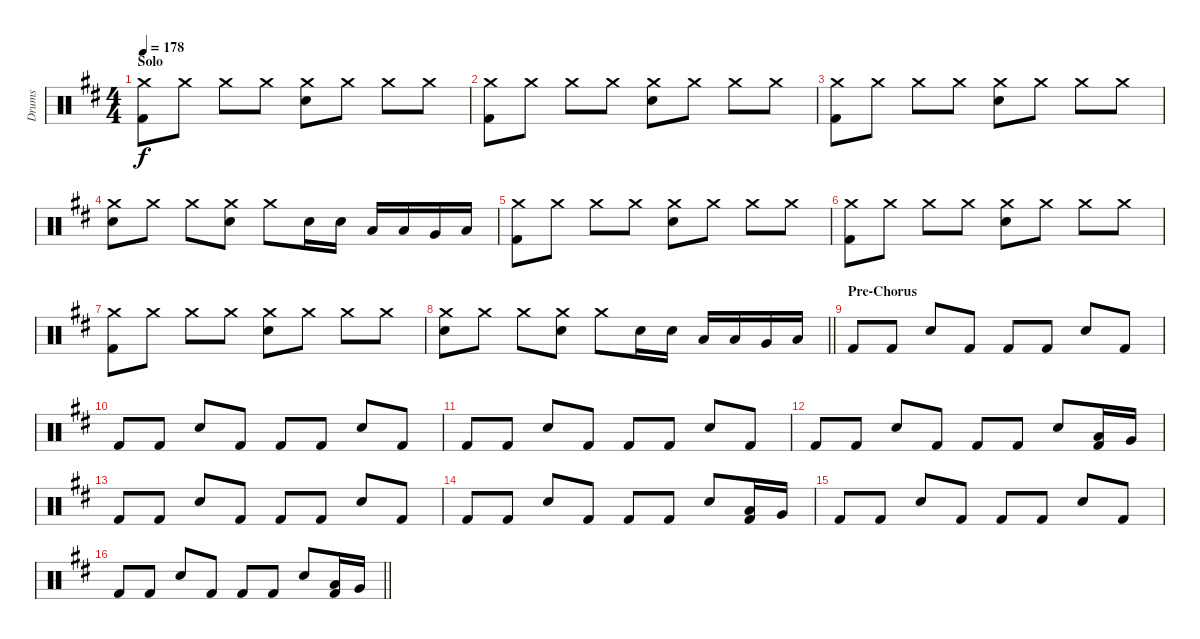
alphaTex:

\track ("Drums" "Drums") {instrument percussion}
\staff {score}
\articulation defaults
\ts (4 4)
\section ("" "Solo")
\tempo 178
\clef neutral
\ks bminor
("Crash medium (hit)" "Kick (hit) 2").8{dy f} "Crash medium (hit)".8 "Crash medium (hit)".8 "Crash medium (hit)".8 ("Crash medium (hit)" "Snare (hit) 2").8 "Crash medium (hit)".8 "Crash medium (hit)".8 "Crash medium (hit)".8 |
("Crash medium (hit)" "Kick (hit) 2").8 "Crash medium (hit)".8 "Crash medium (hit)".8 "Crash medium (hit)".8 ("Crash medium (hit)" "Snare (hit) 2").8 "Crash medium (hit)".8 "Crash medium (hit)".8 "Crash medium (hit)".8 |
("Crash medium (hit)" "Kick (hit) 2").8 "Crash medium (hit)".8 "Crash medium (hit)".8 "Crash medium (hit)".8 ("Crash medium (hit)" "Snare (hit) 2").8 "Crash medium (hit)".8 "Crash medium (hit)".8 "Crash medium (hit)".8 |
("Crash medium (hit)" "Snare (hit) 2").8 "Crash medium (hit)".8 "Crash medium (hit)".8 ("Crash medium (hit)" "Snare (hit) 2").8 "Crash medium (hit)".8 "Snare (hit) 2".16 "Snare (hit) 2".16 "Low Tom (hit)".16 "Low Tom (hit)".16 "Very Low Tom (hit)".16 "Low Floor Tom (hit)".16 |
("Crash medium (hit)" "Kick (hit) 2").8 "Crash medium (hit)".8 "Crash medium (hit)".8 "Crash medium (hit)".8 ("Crash medium (hit)" "Snare (hit) 2").8 "Crash medium (hit)".8 "Crash medium (hit)".8 "Crash medium (hit)".8 |
("Crash medium (hit)" "Kick (hit) 2").8 "Crash medium (hit)".8 "Crash medium (hit)".8 "Crash medium (hit)".8 ("Crash medium (hit)" "Snare (hit) 2").8 "Crash medium (hit)".8 "Crash medium (hit)".8 "Crash medium (hit)".8 |
("Crash medium (hit)" "Kick (hit) 2").8 "Crash medium (hit)".8 "Crash medium (hit)".8 "Crash medium (hit)".8 ("Crash medium (hit)" "Snare (hit) 2").8 "Crash medium (hit)".8 "Crash medium (hit)".8 "Crash medium (hit)".8 |
\barLineRight lightlight
("Crash medium (hit)" "Snare (hit) 2").8 "Crash medium (hit)".8 "Crash medium (hit)".8 ("Crash medium (hit)" "Snare (hit) 2").8 "Crash medium (hit)".8 "Snare (hit) 2".16 "Snare (hit) 2".16 "Low Tom (hit)".16 "Low Tom (hit)".16 "Very Low Tom (hit)".16 "Low Floor Tom (hit)".16 |
\section ("" "Pre-Chorus")
"Kick (hit) 2".8 "Kick (hit) 2".8 "Snare (hit) 2".8 "Kick (hit) 2".8 "Kick (hit) 2".8 "Kick (hit) 2".8 "Snare (hit) 2".8 "Kick (hit) 2".8 |
"Kick (hit) 2".8 "Kick (hit) 2".8 "Snare (hit) 2".8 "Kick (hit) 2".8 "Kick (hit) 2".8 "Kick (hit) 2".8 "Snare (hit) 2".8 "Kick (hit) 2".8 |
"Kick (hit) 2".8 "Kick (hit) 2".8 "Snare (hit) 2".8 "Kick (hit) 2".8 "Kick (hit) 2".8 "Kick (hit) 2".8 "Snare (hit) 2".8 "Kick (hit) 2".8 |
"Kick (hit) 2".8 "Kick (hit) 2".8 "Snare (hit) 2".8 "Kick (hit) 2".8 "Kick (hit) 2".8 "Kick (hit) 2".8 "Snare (hit) 2".8 ("Low Tom (hit)" "Kick (hit) 2").16 "Very Low Tom (hit)".16 |
"Kick (hit) 2".8 "Kick (hit) 2".8 "Snare (hit) 2".8 "Kick (hit) 2".8 "Kick (hit) 2".8 "Kick (hit) 2".8 "Snare (hit) 2".8 "Kick (hit) 2".8 |
"Kick (hit) 2".8 "Kick (hit) 2".8 "Snare (hit) 2".8 "Kick (hit) 2".8 "Kick (hit) 2".8 "Kick (hit) 2".8 "Snare (hit) 2".8 ("Low Tom (hit)" "Kick (hit) 2").16 "Very Low Tom (hit)".16 |
"Kick (hit) 2".8 "Kick (hit) 2".8 "Snare (hit) 2".8 "Kick (hit) 2".8 "Kick (hit) 2".8 "Kick (hit) 2".8 "Snare (hit) 2".8 "Kick (hit) 2".8 |
\barLineRight lightlight "Kick (hit) 2".8 "Kick (hit) 2".8 "Snare (hit) 2".8 "Kick (hit) 2".8 "Kick (hit) 2".8 "Kick (hit) 2".8 "Snare (hit) 2".8
("Low Tom (hit)" "Kick (hit) 2").16 "Very Low Tom (hit)".16
